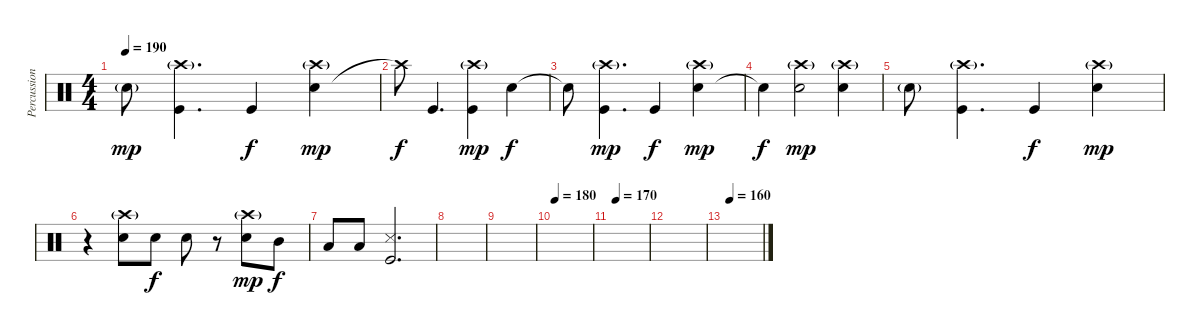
\track ("Percussion" "Percussion") {instrument percussion}
\staff {score}
\articulation defaults
\ts (4 4)
\tempo 190
\clef neutral
\ks c "Electric Snare (hit)"{g}.8{dy mp}
("Kick (hit)" "Crash high (hit)"{g}).4{d} "Kick (hit)".4{dy f} ("Electric Snare (hit)" "Crash high (hit)"{g}).4{dy mp} |
"Crash high (hit)"{t}.8{dy f} "Kick (hit)".4{d} ("Kick (hit)" "Crash high (hit)"{g}).4{dy mp} "Electric Snare (hit)".4{dy f} |
"Electric Snare (hit)"{t}.8 ("Kick (hit)" "Crash high (hit)"{g}).4{d dy mp} "Kick (hit)".4{dy f} ("Electric Snare (hit)" "Crash high (hit)"{g}).4{dy mp} |
"Electric Snare (hit)"{t}.4{dy f} ("Electric Snare (hit)" "Crash high (hit)"{g}).2{dy mp} ("Electric Snare (hit)" "Crash high (hit)"{g}).4 |
"Electric Snare (hit)"{g}.8 ("Kick (hit)" "Crash high (hit)"{g}).4{d} "Kick (hit)".4{dy f} ("Electric Snare (hit)" "Crash high (hit)"{g}).4{dy mp} |
r.4 ("Electric Snare (hit)" "Crash high (hit)"{g}).8 "Electric Snare (hit)".8{dy f} "Electric Snare (hit)".8 r.8 ("Electric Snare (hit)" "Crash high (hit)"{g}).8{dy mp} "Mid Tom (hit)".8{dy f} |
"Low Tom (hit)".8 "Low Tom (hit)".8 ("Kick (hit)" "Snare (side stick) 3").2{d} |
|
|
\tempo 180
|
\tempo (170 0.125)
|
|
\tempo (160 0.125)
